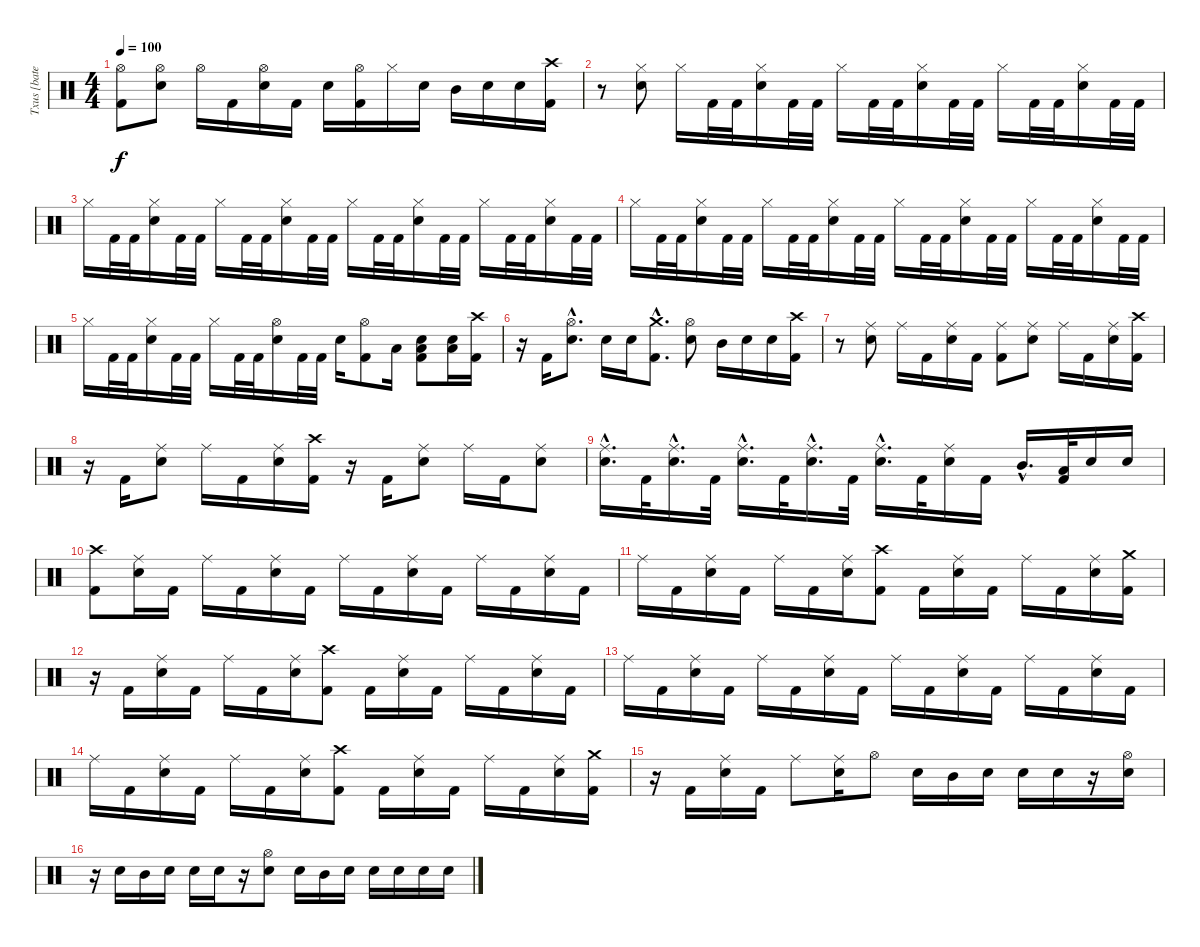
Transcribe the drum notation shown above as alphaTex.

\track ("Txus [bateria]" "Txus [bate") {instrument percussion}
\staff {score}
\articulation defaults
\ts (4 4)
\tempo 100
\clef neutral
\ks c
("Hi-Hat (open)" "Kick (hit) 2").8{dy f} ("Hi-Hat (open)" "Snare (hit) 2").8 "Hi-Hat (open)".16 "Kick (hit) 2".16 ("Hi-Hat (open)" "Snare (hit) 2").16 "Kick (hit) 2".16 "Snare (hit) 2".16 ("Hi-Hat (open)" "Kick (hit) 2").16 "Hi-Hat (closed)".16 "Snare (hit) 2".16 "Mid Tom (hit)".16 "Snare (hit) 2".16 "Snare (hit) 2".16 ("Crash high (hit)" "Kick (hit) 2").16 |
r.8 ("Hi-Hat (closed)" "Snare (hit) 2").8 "Hi-Hat (closed)".16 "Kick (hit) 2".32 "Kick (hit) 2".32 ("Hi-Hat (closed)" "Snare (hit) 2").16 "Kick (hit) 2".32 "Kick (hit) 2".32 "Hi-Hat (closed)".16 "Kick (hit) 2".32 "Kick (hit) 2".32 ("Hi-Hat (closed)" "Snare (hit) 2").16 "Kick (hit) 2".32 "Kick (hit) 2".32 "Hi-Hat (closed)".16 "Kick (hit) 2".32 "Kick (hit) 2".32 ("Hi-Hat (closed)" "Snare (hit) 2").16 "Kick (hit) 2".32 "Kick (hit) 2".32 |
"Hi-Hat (closed)".16 "Kick (hit) 2".32 "Kick (hit) 2".32 ("Hi-Hat (closed)" "Snare (hit) 2").16 "Kick (hit) 2".32 "Kick (hit) 2".32 "Hi-Hat (closed)".16 "Kick (hit) 2".32 "Kick (hit) 2".32 ("Hi-Hat (closed)" "Snare (hit) 2").16 "Kick (hit) 2".32 "Kick (hit) 2".32 "Hi-Hat (closed)".16 "Kick (hit) 2".32 "Kick (hit) 2".32 ("Hi-Hat (closed)" "Snare (hit) 2").16 "Kick (hit) 2".32 "Kick (hit) 2".32 "Hi-Hat (closed)".16 "Kick (hit) 2".32 "Kick (hit) 2".32 ("Hi-Hat (closed)" "Snare (hit) 2").16 "Kick (hit) 2".32 "Kick (hit) 2".32 |
"Hi-Hat (closed)".16 "Kick (hit) 2".32 "Kick (hit) 2".32 ("Hi-Hat (closed)" "Snare (hit) 2").16 "Kick (hit) 2".32 "Kick (hit) 2".32 "Hi-Hat (closed)".16 "Kick (hit) 2".32 "Kick (hit) 2".32 ("Hi-Hat (closed)" "Snare (hit) 2").16 "Kick (hit) 2".32 "Kick (hit) 2".32 "Hi-Hat (closed)".16 "Kick (hit) 2".32 "Kick (hit) 2".32 ("Hi-Hat (closed)" "Snare (hit) 2").16 "Kick (hit) 2".32 "Kick (hit) 2".32 "Hi-Hat (closed)".16 "Kick (hit) 2".32 "Kick (hit) 2".32 ("Hi-Hat (closed)" "Snare (hit) 2").16 "Kick (hit) 2".32 "Kick (hit) 2".32 |
"Hi-Hat (closed)".16 "Kick (hit) 2".32 "Kick (hit) 2".32 ("Hi-Hat (closed)" "Snare (hit) 2").16 "Kick (hit) 2".32 "Kick (hit) 2".32 "Hi-Hat (closed)".16 "Kick (hit) 2".32 "Kick (hit) 2".32 ("Hi-Hat (open)" "Snare (hit) 2").16 "Kick (hit) 2".32 "Kick (hit) 2".32 "Snare (hit) 2".16 ("Hi-Hat (open)" "Kick (hit) 2").8 "Low Tom (hit)".16 ("Low Floor Tom (hit)" "Snare (hit) 2" "Kick (hit) 2").8 ("Low Floor Tom (hit)" "Snare (hit) 2").16 ("Crash high (hit)" "Kick (hit) 2").16 |
r.16 "Kick (hit) 2".16 ("Hi-Hat (open)"{hac} "Snare (hit) 2"{hac}).8{d} "Snare (hit) 2".16 "Snare (hit) 2".16 ("Crash medium (hit)"{hac} "Kick (hit) 2"{hac}).8{d} ("Hi-Hat (open)" "Snare (hit) 2").8 "Mid Tom (hit)".16 "Snare (hit) 2".16 "Snare (hit) 2".16 ("Crash high (hit)" "Kick (hit) 2").16 |
r.8 ("Ride (middle)" "Snare (hit) 2").8 "Ride (middle)".16 "Kick (hit) 2".16 ("Ride (middle)" "Snare (hit) 2").16 "Kick (hit) 2".16 ("Ride (middle)" "Kick (hit) 2").8 ("Ride (middle)" "Snare (hit) 2").8 "Ride (middle)".16 "Kick (hit) 2".16 ("Ride (middle)" "Snare (hit) 2").16 ("Crash high (hit)" "Kick (hit) 2").16 |
r.16 "Kick (hit) 2".16 ("Ride (middle)" "Snare (hit) 2").8 "Ride (middle)".16 "Kick (hit) 2".16 ("Ride (middle)" "Snare (hit) 2").16 ("Crash high (hit)" "Kick (hit) 2").16 r.16 "Kick (hit) 2".16 ("Ride (middle)" "Snare (hit) 2").8 "Ride (middle)".16 "Kick (hit) 2".16 ("Ride (middle)" "Snare (hit) 2").8 |
("Ride (middle)"{hac} "Snare (hit) 2"{hac}).16{d} "Kick (hit) 2".32 ("Ride (middle)"{hac} "Snare (hit) 2"{hac}).16{d} "Kick (hit) 2".32 ("Ride (middle)"{hac} "Snare (hit) 2"{hac}).16{d} "Kick (hit) 2".32 ("Ride (middle)"{hac} "Snare (hit) 2"{hac}).16{d} "Kick (hit) 2".32 ("Ride (middle)"{hac} "Snare (hit) 2"{hac}).16{d} "Kick (hit) 2".32 ("Ride (middle)" "Snare (hit) 2").16 "Kick (hit) 2".16 "Mid Tom (hit)"{hac}.16{d} ("Low Tom (hit)" "Kick (hit) 2").32 "Snare (hit) 2".16 "Snare (hit) 2".16 |
("Crash high (hit)" "Kick (hit) 2").8 ("Ride (middle)" "Snare (hit) 2").16 "Kick (hit) 2".16 "Ride (middle)".16 "Kick (hit) 2".16 ("Ride (middle)" "Snare (hit) 2").16 "Kick (hit) 2".16 "Ride (middle)".16 "Kick (hit) 2".16 ("Ride (middle)" "Snare (hit) 2").16 "Kick (hit) 2".16 "Ride (middle)".16 "Kick (hit) 2".16 ("Ride (middle)" "Snare (hit) 2").16 "Kick (hit) 2".16 |
"Ride (middle)".16 "Kick (hit) 2".16 ("Ride (middle)" "Snare (hit) 2").16 "Kick (hit) 2".16 "Ride (middle)".16 "Kick (hit) 2".16 ("Ride (middle)" "Snare (hit) 2").16 ("Crash high (hit)" "Kick (hit) 2").8 "Kick (hit) 2".16 ("Ride (middle)" "Snare (hit) 2").16 "Kick (hit) 2".16 "Ride (middle)".16 "Kick (hit) 2".16 ("Ride (middle)" "Snare (hit) 2").16 ("Crash medium (hit)" "Kick (hit) 2").16 |
r.16 "Kick (hit) 2".16 ("Ride (middle)" "Snare (hit) 2").16 "Kick (hit) 2".16 "Ride (middle)".16 "Kick (hit) 2".16 ("Ride (middle)" "Snare (hit) 2").16 ("Crash high (hit)" "Kick (hit) 2").8 "Kick (hit) 2".16 ("Ride (middle)" "Snare (hit) 2").16 "Kick (hit) 2".16 "Ride (middle)".16 "Kick (hit) 2".16 ("Ride (middle)" "Snare (hit) 2").16 "Kick (hit) 2".16 |
"Ride (middle)".16 "Kick (hit) 2".16 ("Ride (middle)" "Snare (hit) 2").16 "Kick (hit) 2".16 "Ride (middle)".16 "Kick (hit) 2".16 ("Ride (middle)" "Snare (hit) 2").16 "Kick (hit) 2".16 "Ride (middle)".16 "Kick (hit) 2".16 ("Ride (middle)" "Snare (hit) 2").16 "Kick (hit) 2".16 "Ride (middle)".16 "Kick (hit) 2".16 ("Ride (middle)" "Snare (hit) 2").16 "Kick (hit) 2".16 |
"Ride (middle)".16 "Kick (hit) 2".16 ("Ride (middle)" "Snare (hit) 2").16 "Kick (hit) 2".16 "Ride (middle)".16 "Kick (hit) 2".16 ("Ride (middle)" "Snare (hit) 2").16 ("Crash high (hit)" "Kick (hit) 2").8 "Kick (hit) 2".16 ("Ride (middle)" "Snare (hit) 2").16 "Kick (hit) 2".16 "Ride (middle)".16 "Kick (hit) 2".16 ("Ride (middle)" "Snare (hit) 2").16 ("Crash medium (hit)" "Kick (hit) 2").16 |
r.16 "Kick (hit) 2".16 ("Ride (middle)" "Snare (hit) 2").16 "Kick (hit) 2".16 "Ride (middle)".8 ("Ride (middle)" "Snare (hit) 2").16 "Hi-Hat (open)".8 "Snare (hit) 2".16 "Mid Tom (hit)".16 "Snare (hit) 2".16 "Snare (hit) 2".16 "Snare (hit) 2".16 r.16 ("Hi-Hat (open)" "Snare (hit) 2").16 |
r.16 "Snare (hit) 2".16 "Mid Tom (hit)".16 "Snare (hit) 2".16 "Snare (hit) 2".16 "Snare (hit) 2".16 r.16 ("Hi-Hat (open)" "Snare (hit) 2").8 "Snare (hit) 2".16 "Mid Tom (hit)".16 "Snare (hit) 2".16 "Snare (hit) 2".16 "Snare (hit) 2".16 "Snare (hit) 2".16 "Snare (hit) 2".16
